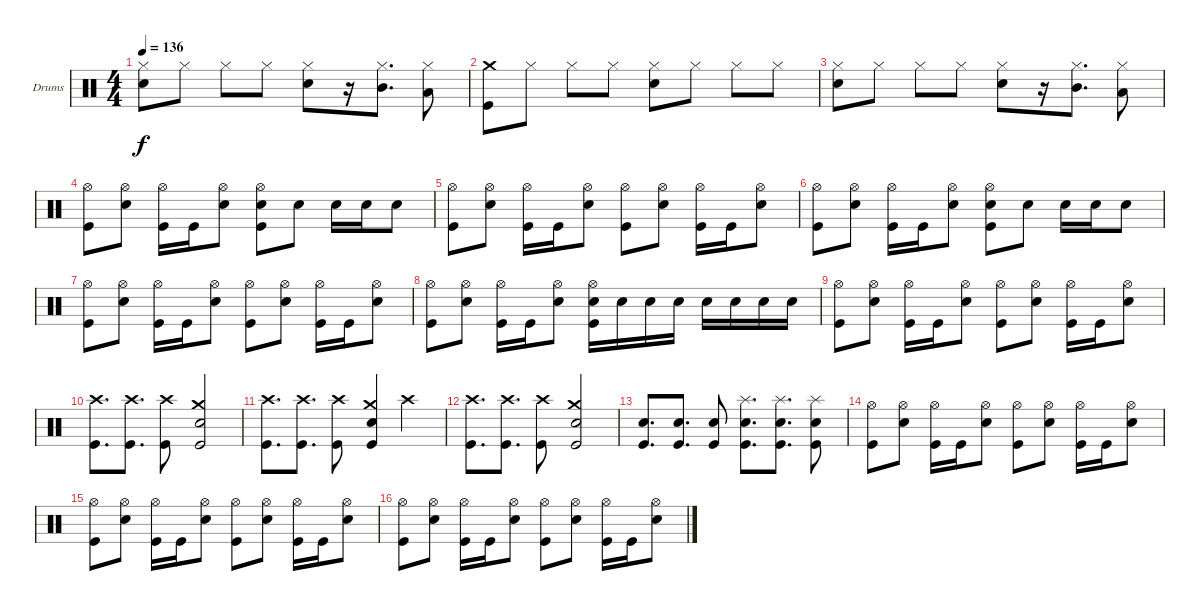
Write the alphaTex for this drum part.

\defaultSystemsLayout 4
\bracketExtendMode groupsimilarinstruments
\firstSystemTrackNameOrientation horizontal
\otherSystemsTrackNameOrientation horizontal
\track ("Lars Ulrich (Drums)" "Drums") {instrument percussion}
\staff {score}
\articulation defaults
\ts (4 4)
\tempo 136
\clef neutral
\ks c
("Hi-Hat (closed)" "Snare (hit) 2").8{dy f} "Hi-Hat (closed)".8 "Hi-Hat (closed)".8 "Hi-Hat (closed)".8 ("Hi-Hat (closed)" "Snare (hit) 2").8 r.16 ("Hi-Hat (closed)" "Mid Tom (hit)").8{d} ("Hi-Hat (closed)" "Low Tom (hit)").8 |
("Crash medium (hit)" "Kick (hit)").8 "Hi-Hat (closed)".8 "Hi-Hat (closed)".8 "Hi-Hat (closed)".8 ("Hi-Hat (closed)" "Snare (hit) 2").8 "Hi-Hat (closed)".8 "Hi-Hat (closed)".8 "Hi-Hat (closed)".8 |
("Hi-Hat (closed)" "Snare (hit) 2").8 "Hi-Hat (closed)".8 "Hi-Hat (closed)".8 "Hi-Hat (closed)".8 ("Hi-Hat (closed)" "Snare (hit) 2").8 r.16 ("Hi-Hat (closed)" "Mid Tom (hit)").8{d} ("Hi-Hat (closed)" "Low Tom (hit)").8 |
("Hi-Hat (open)" "Kick (hit)").8 ("Hi-Hat (open)" "Snare (hit) 2").8 ("Hi-Hat (open)" "Kick (hit)").16 "Kick (hit)".16 ("Hi-Hat (open)" "Snare (hit) 2").8 ("Hi-Hat (open)" "Snare (hit) 2" "Kick (hit)").8 "Snare (hit) 2".8 "Snare (hit) 2".16 "Snare (hit) 2".16 "Snare (hit) 2".8 |
("Hi-Hat (open)" "Kick (hit)").8 ("Hi-Hat (open)" "Snare (hit) 2").8 ("Hi-Hat (open)" "Kick (hit)").16 "Kick (hit)".16 ("Hi-Hat (open)" "Snare (hit) 2").8 ("Hi-Hat (open)" "Kick (hit)").8 ("Hi-Hat (open)" "Snare (hit) 2").8 ("Hi-Hat (open)" "Kick (hit)").16 "Kick (hit)".16 ("Hi-Hat (open)" "Snare (hit) 2").8 |
("Hi-Hat (open)" "Kick (hit)").8 ("Hi-Hat (open)" "Snare (hit) 2").8 ("Hi-Hat (open)" "Kick (hit)").16 "Kick (hit)".16 ("Hi-Hat (open)" "Snare (hit) 2").8 ("Hi-Hat (open)" "Snare (hit) 2" "Kick (hit)").8 "Snare (hit) 2".8 "Snare (hit) 2".16 "Snare (hit) 2".16 "Snare (hit) 2".8 |
("Hi-Hat (open)" "Kick (hit)").8 ("Hi-Hat (open)" "Snare (hit) 2").8 ("Hi-Hat (open)" "Kick (hit)").16 "Kick (hit)".16 ("Hi-Hat (open)" "Snare (hit) 2").8 ("Hi-Hat (open)" "Kick (hit)").8 ("Hi-Hat (open)" "Snare (hit) 2").8 ("Hi-Hat (open)" "Kick (hit)").16 "Kick (hit)".16 ("Hi-Hat (open)" "Snare (hit) 2").8 |
("Hi-Hat (open)" "Kick (hit)").8 ("Hi-Hat (open)" "Snare (hit) 2").8 ("Hi-Hat (open)" "Kick (hit)").16 "Kick (hit)".16 ("Hi-Hat (open)" "Snare (hit) 2").8 ("Hi-Hat (open)" "Snare (hit) 2" "Kick (hit)").16 "Snare (hit) 2".16 "Snare (hit) 2".16 "Snare (hit) 2".16 "Snare (hit) 2".16 "Snare (hit) 2".16 "Snare (hit) 2".16 "Snare (hit) 2".16 |
("Hi-Hat (open)" "Kick (hit)").8 ("Hi-Hat (open)" "Snare (hit) 2").8 ("Hi-Hat (open)" "Kick (hit)").16 "Kick (hit)".16 ("Hi-Hat (open)" "Snare (hit) 2").8 ("Hi-Hat (open)" "Kick (hit)").8 ("Hi-Hat (open)" "Snare (hit) 2").8 ("Hi-Hat (open)" "Kick (hit)").16 "Kick (hit)".16 ("Hi-Hat (open)" "Snare (hit) 2").8 |
("Crash high (hit)" "Kick (hit)").8{d} ("Crash high (hit)" "Kick (hit)").8{d} ("Crash high (hit)" "Kick (hit)").8 ("Crash medium (hit)" "Snare (hit) 2" "Kick (hit)").2 |
("Crash high (hit)" "Kick (hit)").8{d} ("Crash high (hit)" "Kick (hit)").8{d} ("Crash high (hit)" "Kick (hit)").8 ("Crash medium (hit)" "Snare (hit) 2" "Kick (hit)").4 "Crash high (hit)".4 |
("Crash high (hit)" "Kick (hit)").8{d} ("Crash high (hit)" "Kick (hit)").8{d} ("Crash high (hit)" "Kick (hit)").8 ("Crash medium (hit)" "Snare (hit) 2" "Kick (hit)").2 |
("Snare (hit) 2" "Kick (hit)").8{d} ("Snare (hit) 2" "Kick (hit)").8{d} ("Snare (hit) 2" "Kick (hit)").8 ("Splash (hit)" "Snare (hit) 2" "Kick (hit)").8{d} ("Splash (hit)" "Snare (hit) 2" "Kick (hit)").8{d} ("Splash (hit)" "Snare (hit) 2" "Kick (hit)").8 |
("Hi-Hat (open)" "Kick (hit)").8 ("Hi-Hat (open)" "Snare (hit) 2").8 ("Hi-Hat (open)" "Kick (hit)").16 "Kick (hit)".16 ("Hi-Hat (open)" "Snare (hit) 2").8 ("Hi-Hat (open)" "Kick (hit)").8 ("Hi-Hat (open)" "Snare (hit) 2").8 ("Hi-Hat (open)" "Kick (hit)").16 "Kick (hit)".16 ("Hi-Hat (open)" "Snare (hit) 2").8 |
("Hi-Hat (open)" "Kick (hit)").8 ("Hi-Hat (open)" "Snare (hit) 2").8 ("Hi-Hat (open)" "Kick (hit)").16 "Kick (hit)".16 ("Hi-Hat (open)" "Snare (hit) 2").8 ("Hi-Hat (open)" "Kick (hit)").8 ("Hi-Hat (open)" "Snare (hit) 2").8 ("Hi-Hat (open)" "Kick (hit)").16 "Kick (hit)".16 ("Hi-Hat (open)" "Snare (hit) 2").8 |
("Hi-Hat (open)" "Kick (hit)").8 ("Hi-Hat (open)" "Snare (hit) 2").8 ("Hi-Hat (open)" "Kick (hit)").16 "Kick (hit)".16 ("Hi-Hat (open)" "Snare (hit) 2").8 ("Hi-Hat (open)" "Kick (hit)").8 ("Hi-Hat (open)" "Snare (hit) 2").8 ("Hi-Hat (open)" "Kick (hit)").16 "Kick (hit)".16 ("Hi-Hat (open)" "Snare (hit) 2").8
